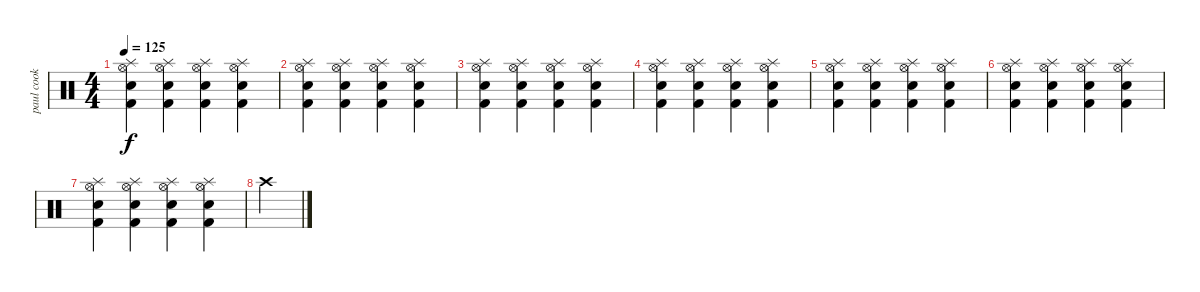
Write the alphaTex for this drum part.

\track ("paul cook" "paul cook") {instrument percussion}
\staff {score}
\articulation defaults
\ts (4 4)
\tempo 125
\clef neutral
\ks c
("Splash (hit)" "Snare (hit) 2" "Kick (hit) 2" "Hi-Hat (open)").4{dy f} ("Splash (hit)" "Snare (hit) 2" "Kick (hit) 2" "Hi-Hat (open)").4 ("Splash (hit)" "Snare (hit) 2" "Kick (hit) 2" "Hi-Hat (open)").4 ("Splash (hit)" "Snare (hit) 2" "Kick (hit) 2" "Hi-Hat (open)").4 |
("Splash (hit)" "Snare (hit) 2" "Kick (hit) 2" "Hi-Hat (open)").4 ("Splash (hit)" "Snare (hit) 2" "Kick (hit) 2" "Hi-Hat (open)").4 ("Splash (hit)" "Snare (hit) 2" "Kick (hit) 2" "Hi-Hat (open)").4 ("Splash (hit)" "Snare (hit) 2" "Kick (hit) 2" "Hi-Hat (open)").4 |
("Splash (hit)" "Snare (hit) 2" "Kick (hit) 2" "Hi-Hat (open)").4 ("Splash (hit)" "Snare (hit) 2" "Kick (hit) 2" "Hi-Hat (open)").4 ("Splash (hit)" "Snare (hit) 2" "Kick (hit) 2" "Hi-Hat (open)").4 ("Splash (hit)" "Snare (hit) 2" "Kick (hit) 2" "Hi-Hat (open)").4 |
("Splash (hit)" "Snare (hit) 2" "Kick (hit) 2" "Hi-Hat (open)").4 ("Splash (hit)" "Snare (hit) 2" "Kick (hit) 2" "Hi-Hat (open)").4 ("Splash (hit)" "Snare (hit) 2" "Kick (hit) 2" "Hi-Hat (open)").4 ("Splash (hit)" "Snare (hit) 2" "Kick (hit) 2" "Hi-Hat (open)").4 |
("Splash (hit)" "Snare (hit) 2" "Kick (hit) 2" "Hi-Hat (open)").4 ("Splash (hit)" "Snare (hit) 2" "Kick (hit) 2" "Hi-Hat (open)").4 ("Splash (hit)" "Snare (hit) 2" "Kick (hit) 2" "Hi-Hat (open)").4 ("Splash (hit)" "Snare (hit) 2" "Kick (hit) 2" "Hi-Hat (open)").4 |
("Splash (hit)" "Snare (hit) 2" "Kick (hit) 2" "Hi-Hat (open)").4 ("Splash (hit)" "Snare (hit) 2" "Kick (hit) 2" "Hi-Hat (open)").4 ("Splash (hit)" "Snare (hit) 2" "Kick (hit) 2" "Hi-Hat (open)").4 ("Splash (hit)" "Snare (hit) 2" "Kick (hit) 2" "Hi-Hat (open)").4 |
("Splash (hit)" "Snare (hit) 2" "Kick (hit) 2" "Hi-Hat (open)").4 ("Splash (hit)" "Snare (hit) 2" "Kick (hit) 2" "Hi-Hat (open)").4 ("Splash (hit)" "Snare (hit) 2" "Kick (hit) 2" "Hi-Hat (open)").4 ("Splash (hit)" "Snare (hit) 2" "Kick (hit) 2" "Hi-Hat (open)").4 |
"Crash high (hit)".4
